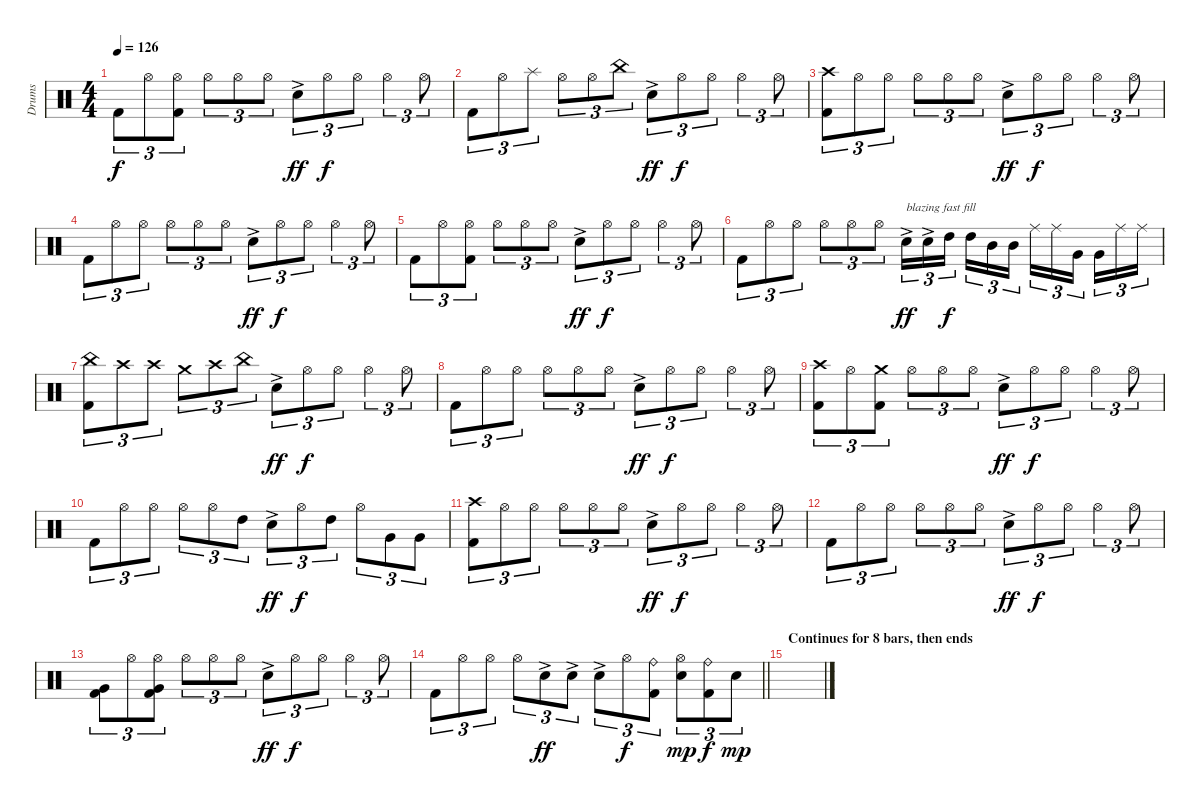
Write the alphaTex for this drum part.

\track ("Drums" "Drums") {instrument percussion}
\staff {score}
\articulation defaults
\ts (4 4)
\tempo 126
\clef neutral
\ks c "Kick (hit) 2".8{tu (3 2) dy f} "Hi-Hat (open)".8{tu (3 2)}
("Hi-Hat (open)" "Kick (hit) 2").8{tu (3 2)} "Hi-Hat (open)".8{tu (3 2)} "Hi-Hat (open)".8{tu (3 2)} "Hi-Hat (open)".8{tu (3 2)} "Electric Snare (hit)"{ac}.8{tu (3 2) dy ff} "Hi-Hat (open)".8{tu (3 2) dy f} "Hi-Hat (open)".8{tu (3 2)} "Hi-Hat (open)".4{tu (3 2)} "Hi-Hat (open)".8{tu (3 2)} |
"Kick (hit) 2".8{tu (3 2)} "Hi-Hat (open)".8{tu (3 2)} "Splash (hit)".8{tu (3 2)} "Hi-Hat (open)".8{tu (3 2)} "Hi-Hat (open)".8{tu (3 2)} "China (hit)".8{tu (3 2)} "Electric Snare (hit)"{ac}.8{tu (3 2) dy ff} "Hi-Hat (open)".8{tu (3 2) dy f} "Hi-Hat (open)".8{tu (3 2)} "Hi-Hat (open)".4{tu (3 2)} "Hi-Hat (open)".8{tu (3 2)} |
("Crash high (hit)" "Kick (hit) 2").8{tu (3 2)} "Hi-Hat (open)".8{tu (3 2)} "Hi-Hat (open)".8{tu (3 2)} "Hi-Hat (open)".8{tu (3 2)} "Hi-Hat (open)".8{tu (3 2)} "Hi-Hat (open)".8{tu (3 2)} "Electric Snare (hit)"{ac}.8{tu (3 2) dy ff} "Hi-Hat (open)".8{tu (3 2) dy f} "Hi-Hat (open)".8{tu (3 2)} "Hi-Hat (open)".4{tu (3 2)} "Hi-Hat (open)".8{tu (3 2)} |
"Kick (hit) 2".8{tu (3 2)} "Hi-Hat (open)".8{tu (3 2)} "Hi-Hat (open)".8{tu (3 2)} "Hi-Hat (open)".8{tu (3 2)} "Hi-Hat (open)".8{tu (3 2)} "Hi-Hat (open)".8{tu (3 2)} "Electric Snare (hit)"{ac}.8{tu (3 2) dy ff} "Hi-Hat (open)".8{tu (3 2) dy f} "Hi-Hat (open)".8{tu (3 2)} "Hi-Hat (open)".4{tu (3 2)} "Hi-Hat (open)".8{tu (3 2)} |
"Kick (hit) 2".8{tu (3 2)} "Hi-Hat (open)".8{tu (3 2)} ("Hi-Hat (open)" "Kick (hit) 2").8{tu (3 2)} "Hi-Hat (open)".8{tu (3 2)} "Hi-Hat (open)".8{tu (3 2)} "Hi-Hat (open)".8{tu (3 2)} "Electric Snare (hit)"{ac}.8{tu (3 2) dy ff} "Hi-Hat (open)".8{tu (3 2) dy f} "Hi-Hat (open)".8{tu (3 2)} "Hi-Hat (open)".4{tu (3 2)} "Hi-Hat (open)".8{tu (3 2)} |
"Kick (hit) 2".8{tu (3 2)} "Hi-Hat (open)".8{tu (3 2)} "Hi-Hat (open)".8{tu (3 2)} "Hi-Hat (open)".8{tu (3 2)} "Hi-Hat (open)".8{tu (3 2)} "Hi-Hat (open)".8{tu (3 2)} "Electric Snare (hit)"{ac}.16{tu (3 2) txt "blazing fast fill" dy ff} "Electric Snare (hit)"{ac}.16{tu (3 2)} "High Tom (hit)".16{tu (3 2) dy f beam splitsecondary} "High Tom (hit)".16{tu (3 2)} "Mid Tom (hit)".16{tu (3 2)} "Mid Tom (hit)".16{tu (3 2)} "Ride (middle)".16{tu (3 2)} "Ride (middle)".16{tu (3 2)} "Very Low Tom (hit)".16{tu (3 2) beam splitsecondary} "Very Low Tom (hit)".16{tu (3 2)} "Ride (middle)".16{tu (3 2)} "Ride (middle)".16{tu (3 2)} |
("China (hit)" "Kick (hit) 2").8{tu (3 2)} "Crash high (hit)".8{tu (3 2)} "Crash high (hit)".8{tu (3 2)} "Crash medium (hit)".8{tu (3 2)} "Crash high (hit)".8{tu (3 2)} "China (hit)".8{tu (3 2)} "Electric Snare (hit)"{ac}.8{tu (3 2) dy ff} "Hi-Hat (open)".8{tu (3 2) dy f} "Hi-Hat (open)".8{tu (3 2)} "Hi-Hat (open)".4{tu (3 2)} "Hi-Hat (open)".8{tu (3 2)} |
"Kick (hit) 2".8{tu (3 2)} "Hi-Hat (open)".8{tu (3 2)} "Hi-Hat (open)".8{tu (3 2)} "Hi-Hat (open)".8{tu (3 2)} "Hi-Hat (open)".8{tu (3 2)} "Hi-Hat (open)".8{tu (3 2)} "Electric Snare (hit)"{ac}.8{tu (3 2) dy ff} "Hi-Hat (open)".8{tu (3 2) dy f} "Hi-Hat (open)".8{tu (3 2)} "Hi-Hat (open)".4{tu (3 2)} "Hi-Hat (open)".8{tu (3 2)} |
("Crash high (hit)" "Kick (hit) 2").8{tu (3 2)} "Hi-Hat (open)".8{tu (3 2)} ("Crash medium (hit)" "Kick (hit) 2").8{tu (3 2)} "Hi-Hat (open)".8{tu (3 2)} "Hi-Hat (open)".8{tu (3 2)} "Hi-Hat (open)".8{tu (3 2)} "Electric Snare (hit)"{ac}.8{tu (3 2) dy ff} "Hi-Hat (open)".8{tu (3 2) dy f} "Hi-Hat (open)".8{tu (3 2)} "Hi-Hat (open)".4{tu (3 2)} "Hi-Hat (open)".8{tu (3 2)} |
"Kick (hit) 2".8{tu (3 2)} "Hi-Hat (open)".8{tu (3 2)} "Hi-Hat (open)".8{tu (3 2)} "Hi-Hat (open)".8{tu (3 2)} "Hi-Hat (open)".8{tu (3 2)} "High Tom (hit)".8{tu (3 2)} "Electric Snare (hit)"{ac}.8{tu (3 2) dy ff} "Hi-Hat (open)".8{tu (3 2) dy f} "High Tom (hit)".8{tu (3 2)} "Hi-Hat (open)".8{tu (3 2)} "Very Low Tom (hit)".8{tu (3 2)} "Very Low Tom (hit)".8{tu (3 2)} |
("Crash high (hit)" "Kick (hit) 2").8{tu (3 2) volume 6} "Hi-Hat (open)".8{tu (3 2)} "Hi-Hat (open)".8{tu (3 2)} "Hi-Hat (open)".8{tu (3 2)} "Hi-Hat (open)".8{tu (3 2)} "Hi-Hat (open)".8{tu (3 2)} "Electric Snare (hit)"{ac}.8{tu (3 2) dy ff} "Hi-Hat (open)".8{tu (3 2) dy f} "Hi-Hat (open)".8{tu (3 2)} "Hi-Hat (open)".4{tu (3 2)} "Hi-Hat (open)".8{tu (3 2)} |
"Kick (hit) 2".8{tu (3 2)} "Hi-Hat (open)".8{tu (3 2)} "Hi-Hat (open)".8{tu (3 2)} "Hi-Hat (open)".8{tu (3 2)} "Hi-Hat (open)".8{tu (3 2)} "Hi-Hat (open)".8{tu (3 2)} "Electric Snare (hit)"{ac}.8{tu (3 2) dy ff} "Hi-Hat (open)".8{tu (3 2) dy f} "Hi-Hat (open)".8{tu (3 2)} "Hi-Hat (open)".4{tu (3 2)} "Hi-Hat (open)".8{tu (3 2)} |
("Very Low Tom (hit)" "Kick (hit) 2").8{tu (3 2)} "Hi-Hat (open)".8{tu (3 2)} ("Hi-Hat (open)" "Very Low Tom (hit)" "Kick (hit) 2").8{tu (3 2)} "Hi-Hat (open)".8{tu (3 2)} "Hi-Hat (open)".8{tu (3 2)} "Hi-Hat (open)".8{tu (3 2)} "Electric Snare (hit)"{ac}.8{tu (3 2) dy ff} "Hi-Hat (open)".8{tu (3 2) dy f} "Hi-Hat (open)".8{tu (3 2)} "Hi-Hat (open)".4{tu (3 2)} "Hi-Hat (open)".8{tu (3 2)} |
\barLineRight lightlight "Kick (hit) 2".8{tu (3 2)} "Hi-Hat (open)".8{tu (3 2)} "Hi-Hat (open)".8{tu (3 2)} "Hi-Hat (open)".8{tu (3 2)} "Electric Snare (hit)"{ac}.8{tu (3 2) dy ff} "Electric Snare (hit)"{ac}.8{tu (3 2)} "Electric Snare (hit)"{ac}.8{tu (3 2)} "Hi-Hat (open)".8{tu (3 2) dy f}
("Ride (bell)" "Kick (hit) 2").8{tu (3 2)} ("Hi-Hat (open)" "Electric Snare (hit)").8{tu (3 2) dy mp} ("Ride (bell)" "Kick (hit) 2").8{tu (3 2) dy f} "Electric Snare (hit)".8{tu (3 2) dy mp} |
\section ("" "Continues for 8 bars, then ends")
